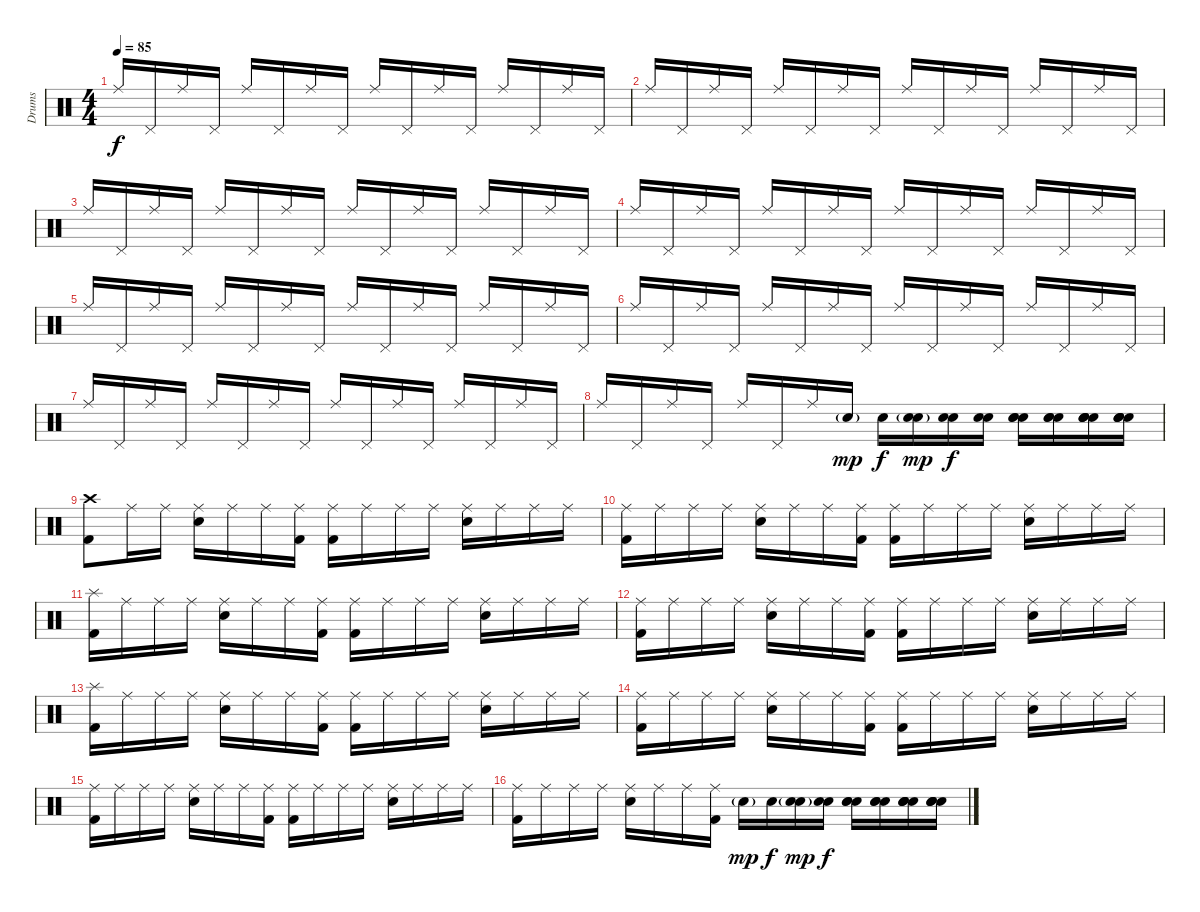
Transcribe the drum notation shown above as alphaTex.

\track ("Drums" "Drums") {instrument percussion}
\staff {score}
\articulation defaults
\ts (4 4)
\tempo 85
\clef neutral
\ks c "Ride (middle)".16{dy f} "Pedal Hi-Hat (hit)".16 "Ride (middle)".16 "Pedal Hi-Hat (hit)".16 "Ride (middle)".16 "Pedal Hi-Hat (hit)".16 "Ride (middle)".16 "Pedal Hi-Hat (hit)".16 "Ride (middle)".16 "Pedal Hi-Hat (hit)".16 "Ride (middle)".16 "Pedal Hi-Hat (hit)".16 "Ride (middle)".16 "Pedal Hi-Hat (hit)".16 "Ride (middle)".16 "Pedal Hi-Hat (hit)".16
|
"Ride (middle)".16 "Pedal Hi-Hat (hit)".16 "Ride (middle)".16 "Pedal Hi-Hat (hit)".16 "Ride (middle)".16 "Pedal Hi-Hat (hit)".16 "Ride (middle)".16 "Pedal Hi-Hat (hit)".16 "Ride (middle)".16 "Pedal Hi-Hat (hit)".16 "Ride (middle)".16 "Pedal Hi-Hat (hit)".16 "Ride (middle)".16 "Pedal Hi-Hat (hit)".16 "Ride (middle)".16 "Pedal Hi-Hat (hit)".16 |
"Ride (middle)".16 "Pedal Hi-Hat (hit)".16 "Ride (middle)".16 "Pedal Hi-Hat (hit)".16 "Ride (middle)".16 "Pedal Hi-Hat (hit)".16 "Ride (middle)".16 "Pedal Hi-Hat (hit)".16 "Ride (middle)".16 "Pedal Hi-Hat (hit)".16 "Ride (middle)".16 "Pedal Hi-Hat (hit)".16 "Ride (middle)".16 "Pedal Hi-Hat (hit)".16 "Ride (middle)".16 "Pedal Hi-Hat (hit)".16 |
"Ride (middle)".16 "Pedal Hi-Hat (hit)".16 "Ride (middle)".16 "Pedal Hi-Hat (hit)".16 "Ride (middle)".16 "Pedal Hi-Hat (hit)".16 "Ride (middle)".16 "Pedal Hi-Hat (hit)".16 "Ride (middle)".16 "Pedal Hi-Hat (hit)".16 "Ride (middle)".16 "Pedal Hi-Hat (hit)".16 "Ride (middle)".16 "Pedal Hi-Hat (hit)".16 "Ride (middle)".16 "Pedal Hi-Hat (hit)".16 |
"Ride (middle)".16 "Pedal Hi-Hat (hit)".16 "Ride (middle)".16 "Pedal Hi-Hat (hit)".16 "Ride (middle)".16 "Pedal Hi-Hat (hit)".16 "Ride (middle)".16 "Pedal Hi-Hat (hit)".16 "Ride (middle)".16 "Pedal Hi-Hat (hit)".16 "Ride (middle)".16 "Pedal Hi-Hat (hit)".16 "Ride (middle)".16 "Pedal Hi-Hat (hit)".16 "Ride (middle)".16 "Pedal Hi-Hat (hit)".16 |
"Ride (middle)".16 "Pedal Hi-Hat (hit)".16 "Ride (middle)".16 "Pedal Hi-Hat (hit)".16 "Ride (middle)".16 "Pedal Hi-Hat (hit)".16 "Ride (middle)".16 "Pedal Hi-Hat (hit)".16 "Ride (middle)".16 "Pedal Hi-Hat (hit)".16 "Ride (middle)".16 "Pedal Hi-Hat (hit)".16 "Ride (middle)".16 "Pedal Hi-Hat (hit)".16 "Ride (middle)".16 "Pedal Hi-Hat (hit)".16 |
"Ride (middle)".16 "Pedal Hi-Hat (hit)".16 "Ride (middle)".16 "Pedal Hi-Hat (hit)".16 "Ride (middle)".16 "Pedal Hi-Hat (hit)".16 "Ride (middle)".16 "Pedal Hi-Hat (hit)".16 "Ride (middle)".16 "Pedal Hi-Hat (hit)".16 "Ride (middle)".16 "Pedal Hi-Hat (hit)".16 "Ride (middle)".16 "Pedal Hi-Hat (hit)".16 "Ride (middle)".16 "Pedal Hi-Hat (hit)".16 |
"Ride (middle)".16 "Pedal Hi-Hat (hit)".16 "Ride (middle)".16 "Pedal Hi-Hat (hit)".16 "Ride (middle)".16 "Pedal Hi-Hat (hit)".16 "Ride (middle)".16 "Snare (hit) 2"{g}.16{dy mp} "Snare (hit) 2".16{dy f} ("Snare (hit) 2"{g} "Snare (hit) 2").16{dy mp} ("Snare (hit) 2" "Snare (hit) 2").16{dy f} ("Snare (hit) 2" "Snare (hit) 2").16 ("Snare (hit) 2" "Snare (hit) 2" "Snare (hit) 2").16 ("Snare (hit) 2" "Snare (hit) 2" "Snare (hit) 2").16 ("Snare (hit) 2" "Snare (hit) 2" "Snare (hit) 2" "Snare (hit) 2").16 ("Snare (hit) 2" "Snare (hit) 2" "Snare (hit) 2" "Snare (hit) 2").16 |
("Crash high (hit)" "Kick (hit) 2").8 "Ride (middle)".16 "Ride (middle)".16 ("Ride (middle)" "Snare (hit) 2").16 "Ride (middle)".16 "Ride (middle)".16 ("Ride (middle)" "Kick (hit) 2").16 ("Ride (middle)" "Kick (hit) 2").16 "Ride (middle)".16 "Ride (middle)".16 "Ride (middle)".16 ("Ride (middle)" "Snare (hit) 2").16 "Ride (middle)".16 "Ride (middle)".16 "Ride (middle)".16 |
("Ride (middle)" "Kick (hit) 2").16 "Ride (middle)".16 "Ride (middle)".16 "Ride (middle)".16 ("Ride (middle)" "Snare (hit) 2").16 "Ride (middle)".16 "Ride (middle)".16 ("Ride (middle)" "Kick (hit) 2").16 ("Ride (middle)" "Kick (hit) 2").16 "Ride (middle)".16 "Ride (middle)".16 "Ride (middle)".16 ("Ride (middle)" "Snare (hit) 2").16 "Ride (middle)".16 "Ride (middle)".16 "Ride (middle)".16 |
("Splash (hit)" "Kick (hit) 2").16 "Ride (middle)".16 "Ride (middle)".16 "Ride (middle)".16 ("Ride (middle)" "Snare (hit) 2").16 "Ride (middle)".16 "Ride (middle)".16 ("Ride (middle)" "Kick (hit) 2").16 ("Ride (middle)" "Kick (hit) 2").16 "Ride (middle)".16 "Ride (middle)".16 "Ride (middle)".16 ("Ride (middle)" "Snare (hit) 2").16 "Ride (middle)".16 "Ride (middle)".16 "Ride (middle)".16 |
("Ride (middle)" "Kick (hit) 2").16 "Ride (middle)".16 "Ride (middle)".16 "Ride (middle)".16 ("Ride (middle)" "Snare (hit) 2").16 "Ride (middle)".16 "Ride (middle)".16 ("Ride (middle)" "Kick (hit) 2").16 ("Ride (middle)" "Kick (hit) 2").16 "Ride (middle)".16 "Ride (middle)".16 "Ride (middle)".16 ("Ride (middle)" "Snare (hit) 2").16 "Ride (middle)".16 "Ride (middle)".16 "Ride (middle)".16 |
("Splash (hit)" "Kick (hit) 2").16 "Ride (middle)".16 "Ride (middle)".16 "Ride (middle)".16 ("Ride (middle)" "Snare (hit) 2").16 "Ride (middle)".16 "Ride (middle)".16 ("Ride (middle)" "Kick (hit) 2").16 ("Ride (middle)" "Kick (hit) 2").16 "Ride (middle)".16 "Ride (middle)".16 "Ride (middle)".16 ("Ride (middle)" "Snare (hit) 2").16 "Ride (middle)".16 "Ride (middle)".16 "Ride (middle)".16 |
("Ride (middle)" "Kick (hit) 2").16 "Ride (middle)".16 "Ride (middle)".16 "Ride (middle)".16 ("Ride (middle)" "Snare (hit) 2").16 "Ride (middle)".16 "Ride (middle)".16 ("Ride (middle)" "Kick (hit) 2").16 ("Ride (middle)" "Kick (hit) 2").16 "Ride (middle)".16 "Ride (middle)".16 "Ride (middle)".16 ("Ride (middle)" "Snare (hit) 2").16 "Ride (middle)".16 "Ride (middle)".16 "Ride (middle)".16 |
("Ride (middle)" "Kick (hit) 2").16 "Ride (middle)".16 "Ride (middle)".16 "Ride (middle)".16 ("Ride (middle)" "Snare (hit) 2").16 "Ride (middle)".16 "Ride (middle)".16 ("Ride (middle)" "Kick (hit) 2").16 ("Ride (middle)" "Kick (hit) 2").16 "Ride (middle)".16 "Ride (middle)".16 "Ride (middle)".16 ("Ride (middle)" "Snare (hit) 2").16 "Ride (middle)".16 "Ride (middle)".16 "Ride (middle)".16 |
("Ride (middle)" "Kick (hit) 2").16 "Ride (middle)".16 "Ride (middle)".16 "Ride (middle)".16 ("Ride (middle)" "Snare (hit) 2").16 "Ride (middle)".16 "Ride (middle)".16 ("Ride (middle)" "Kick (hit) 2").16 "Snare (hit) 2"{g}.16{dy mp} "Snare (hit) 2".16{dy f} ("Snare (hit) 2"{g} "Snare (hit) 2").16{dy mp} ("Snare (hit) 2" "Snare (hit) 2").16{dy f} ("Snare (hit) 2" "Snare (hit) 2" "Snare (hit) 2").16 ("Snare (hit) 2" "Snare (hit) 2" "Snare (hit) 2").16 ("Snare (hit) 2" "Snare (hit) 2" "Snare (hit) 2" "Snare (hit) 2").16 ("Snare (hit) 2" "Snare (hit) 2" "Snare (hit) 2" "Snare (hit) 2").16
